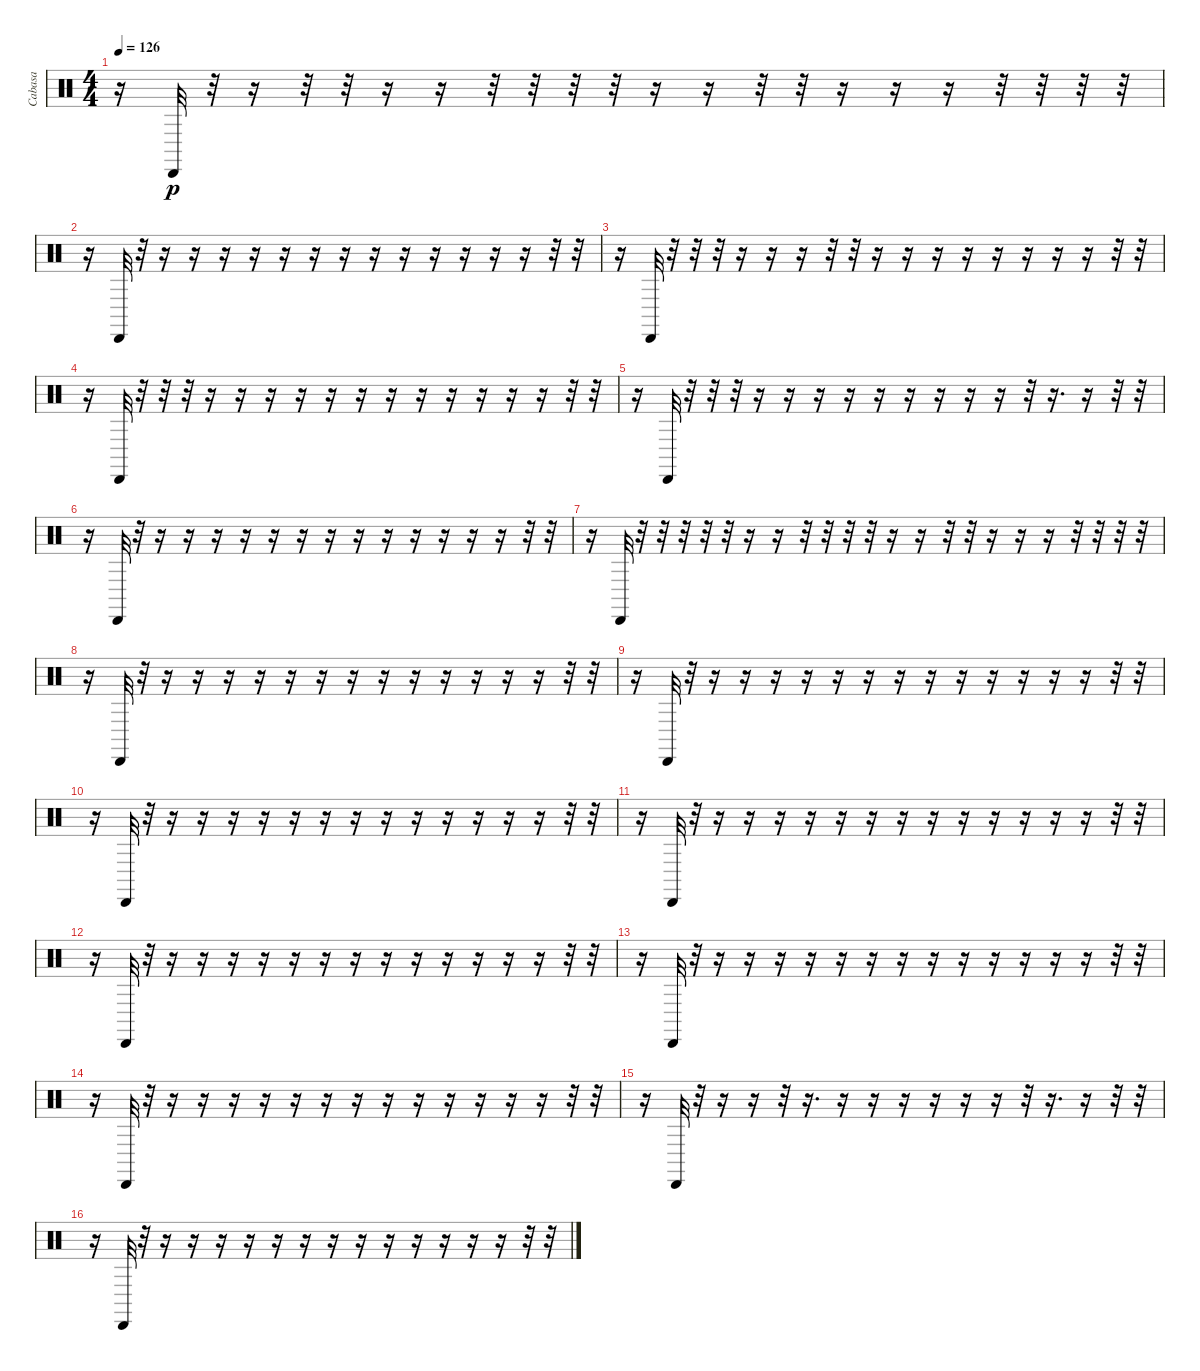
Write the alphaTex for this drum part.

\track ("Cabasa" "Cabasa") {instrument percussion}
\staff {score}
\articulation defaults
\ts (4 4)
\tempo 126
\clef neutral
\ks c
r.16{dy p} "Cabasa (hit)".32 r.32 r.16 r.32 r.32 r.16 r.16 r.32 r.32 r.32 r.32 r.16 r.16 r.32 r.32 r.16 r.16 r.16 r.32 r.32 r.32 r.32 |
r.16 "Cabasa (hit)".32 r.32 r.16 r.16 r.16 r.16 r.16 r.16 r.16 r.16 r.16 r.16 r.16 r.16 r.16 r.32 r.32 |
r.16 "Cabasa (hit)".32 r.32 r.32 r.32 r.16 r.16 r.16 r.32 r.32 r.16 r.16 r.16 r.16 r.16 r.16 r.16 r.16 r.32 r.32 |
r.16 "Cabasa (hit)".32 r.32 r.32 r.32 r.16 r.16 r.16 r.16 r.16 r.16 r.16 r.16 r.16 r.16 r.16 r.16 r.32 r.32 |
r.16 "Cabasa (hit)".32 r.32 r.32 r.32 r.16 r.16 r.16 r.16 r.16 r.16 r.16 r.16 r.16 r.32 r.16{d} r.16 r.32 r.32 |
r.16 "Cabasa (hit)".32 r.32 r.16 r.16 r.16 r.16 r.16 r.16 r.16 r.16 r.16 r.16 r.16 r.16 r.16 r.32 r.32 |
r.16 "Cabasa (hit)".32 r.32 r.32 r.32 r.32 r.32 r.16 r.16 r.32 r.32 r.32 r.32 r.16 r.16 r.32 r.32 r.16 r.16 r.16 r.32 r.32 r.32 r.32 |
r.16 "Cabasa (hit)".32 r.32 r.16 r.16 r.16 r.16 r.16 r.16 r.16 r.16 r.16 r.16 r.16 r.16 r.16 r.32 r.32 |
r.16 "Cabasa (hit)".32 r.32 r.16 r.16 r.16 r.16 r.16 r.16 r.16 r.16 r.16 r.16 r.16 r.16 r.16 r.32 r.32 |
r.16 "Cabasa (hit)".32 r.32 r.16 r.16 r.16 r.16 r.16 r.16 r.16 r.16 r.16 r.16 r.16 r.16 r.16 r.32 r.32 |
r.16 "Cabasa (hit)".32 r.32 r.16 r.16 r.16 r.16 r.16 r.16 r.16 r.16 r.16 r.16 r.16 r.16 r.16 r.32 r.32 |
r.16 "Cabasa (hit)".32 r.32 r.16 r.16 r.16 r.16 r.16 r.16 r.16 r.16 r.16 r.16 r.16 r.16 r.16 r.32 r.32 |
r.16 "Cabasa (hit)".32 r.32 r.16 r.16 r.16 r.16 r.16 r.16 r.16 r.16 r.16 r.16 r.16 r.16 r.16 r.32 r.32 |
r.16 "Cabasa (hit)".32 r.32 r.16 r.16 r.16 r.16 r.16 r.16 r.16 r.16 r.16 r.16 r.16 r.16 r.16 r.32 r.32 |
r.16 "Cabasa (hit)".32 r.32 r.16 r.16 r.32 r.16{d} r.16 r.16 r.16 r.16 r.16 r.16 r.32 r.16{d} r.16 r.32 r.32 |
r.16 "Cabasa (hit)".32 r.32 r.16 r.16 r.16 r.16 r.16 r.16 r.16 r.16 r.16 r.16 r.16 r.16 r.16 r.32 r.32
